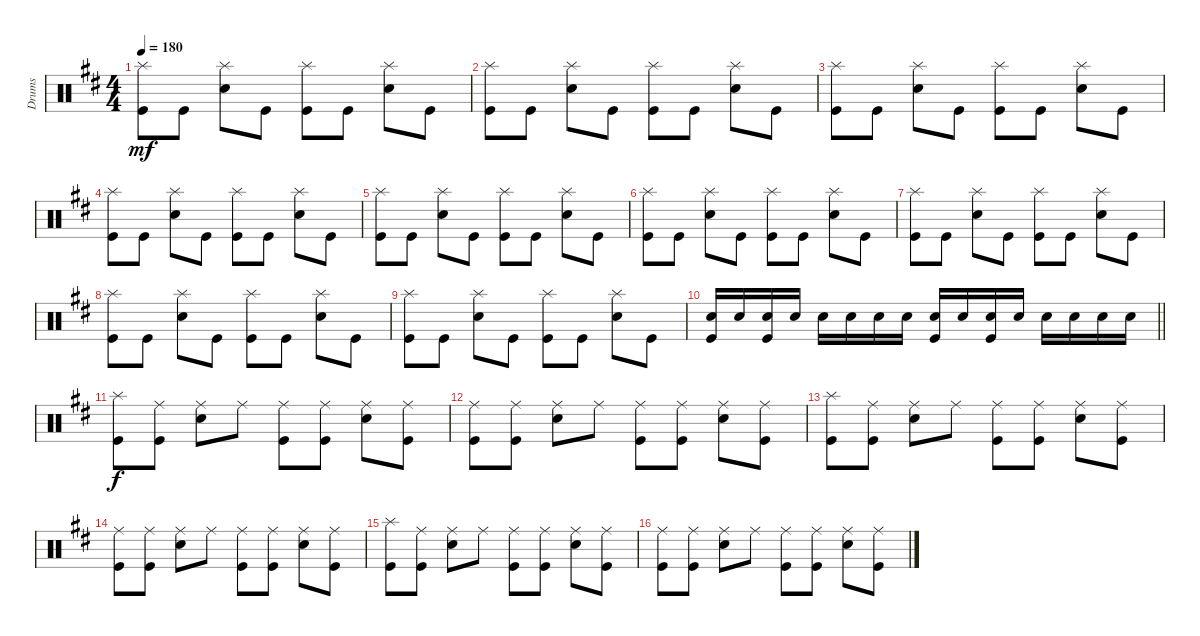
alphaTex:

\track ("Drums" "Drums") {instrument percussion}
\staff {score}
\articulation defaults
\ts (4 4)
\tempo 180
\clef neutral
\ks d
("Kick (hit)" "Splash (hit)").8{dy mf} "Kick (hit)".8 ("Snare (hit) 2" "Splash (hit)").8 "Kick (hit)".8 ("Kick (hit)" "Splash (hit)").8 "Kick (hit)".8 ("Snare (hit) 2" "Splash (hit)").8 "Kick (hit)".8 |
("Kick (hit)" "Splash (hit)").8 "Kick (hit)".8 ("Snare (hit) 2" "Splash (hit)").8 "Kick (hit)".8 ("Kick (hit)" "Splash (hit)").8 "Kick (hit)".8 ("Snare (hit) 2" "Splash (hit)").8 "Kick (hit)".8 |
("Kick (hit)" "Splash (hit)").8 "Kick (hit)".8 ("Snare (hit) 2" "Splash (hit)").8 "Kick (hit)".8 ("Kick (hit)" "Splash (hit)").8 "Kick (hit)".8 ("Snare (hit) 2" "Splash (hit)").8 "Kick (hit)".8 |
("Kick (hit)" "Splash (hit)").8 "Kick (hit)".8 ("Snare (hit) 2" "Splash (hit)").8 "Kick (hit)".8 ("Kick (hit)" "Splash (hit)").8 "Kick (hit)".8 ("Snare (hit) 2" "Splash (hit)").8 "Kick (hit)".8 |
("Kick (hit)" "Splash (hit)").8 "Kick (hit)".8 ("Snare (hit) 2" "Splash (hit)").8 "Kick (hit)".8 ("Kick (hit)" "Splash (hit)").8 "Kick (hit)".8 ("Snare (hit) 2" "Splash (hit)").8 "Kick (hit)".8 |
("Kick (hit)" "Splash (hit)").8 "Kick (hit)".8 ("Snare (hit) 2" "Splash (hit)").8 "Kick (hit)".8 ("Kick (hit)" "Splash (hit)").8 "Kick (hit)".8 ("Snare (hit) 2" "Splash (hit)").8 "Kick (hit)".8 |
("Kick (hit)" "Splash (hit)").8 "Kick (hit)".8 ("Snare (hit) 2" "Splash (hit)").8 "Kick (hit)".8 ("Kick (hit)" "Splash (hit)").8 "Kick (hit)".8 ("Snare (hit) 2" "Splash (hit)").8 "Kick (hit)".8 |
("Kick (hit)" "Splash (hit)").8 "Kick (hit)".8 ("Snare (hit) 2" "Splash (hit)").8 "Kick (hit)".8 ("Kick (hit)" "Splash (hit)").8 "Kick (hit)".8 ("Snare (hit) 2" "Splash (hit)").8 "Kick (hit)".8 |
("Kick (hit)" "Splash (hit)").8 "Kick (hit)".8 ("Snare (hit) 2" "Splash (hit)").8 "Kick (hit)".8 ("Kick (hit)" "Splash (hit)").8 "Kick (hit)".8 ("Snare (hit) 2" "Splash (hit)").8 "Kick (hit)".8 |
\barLineRight lightlight
("Snare (hit) 2" "Kick (hit)").16 "Snare (hit) 2".16 ("Snare (hit) 2" "Kick (hit)").16 "Snare (hit) 2".16 "Snare (hit) 2".16 "Snare (hit) 2".16 "Snare (hit) 2".16 "Snare (hit) 2".16 ("Snare (hit) 2" "Kick (hit)").16 "Snare (hit) 2".16 ("Snare (hit) 2" "Kick (hit)").16 "Snare (hit) 2".16 "Snare (hit) 2".16 "Snare (hit) 2".16 "Snare (hit) 2".16 "Snare (hit) 2".16 |
("Kick (hit)" "Splash (hit)").8{dy f} ("Kick (hit)" "Ride (middle)").8 ("Snare (hit) 2" "Ride (middle)").8 "Ride (middle)".8 ("Kick (hit)" "Ride (middle)").8 ("Kick (hit)" "Ride (middle)").8 ("Snare (hit) 2" "Ride (middle)").8 ("Kick (hit)" "Ride (middle)").8 |
("Kick (hit)" "Ride (middle)").8 ("Kick (hit)" "Ride (middle)").8 ("Snare (hit) 2" "Ride (middle)").8 "Ride (middle)".8 ("Kick (hit)" "Ride (middle)").8 ("Kick (hit)" "Ride (middle)").8 ("Snare (hit) 2" "Ride (middle)").8 ("Kick (hit)" "Ride (middle)").8 |
("Kick (hit)" "Splash (hit)").8 ("Kick (hit)" "Ride (middle)").8 ("Snare (hit) 2" "Ride (middle)").8 "Ride (middle)".8 ("Kick (hit)" "Ride (middle)").8 ("Kick (hit)" "Ride (middle)").8 ("Snare (hit) 2" "Ride (middle)").8 ("Kick (hit)" "Ride (middle)").8 |
("Kick (hit)" "Ride (middle)").8 ("Kick (hit)" "Ride (middle)").8 ("Snare (hit) 2" "Ride (middle)").8 "Ride (middle)".8 ("Kick (hit)" "Ride (middle)").8 ("Kick (hit)" "Ride (middle)").8 ("Snare (hit) 2" "Ride (middle)").8 ("Kick (hit)" "Ride (middle)").8 |
("Kick (hit)" "Splash (hit)").8 ("Kick (hit)" "Ride (middle)").8 ("Snare (hit) 2" "Ride (middle)").8 "Ride (middle)".8 ("Kick (hit)" "Ride (middle)").8 ("Kick (hit)" "Ride (middle)").8 ("Snare (hit) 2" "Ride (middle)").8 ("Kick (hit)" "Ride (middle)").8 |
("Kick (hit)" "Ride (middle)").8 ("Kick (hit)" "Ride (middle)").8 ("Snare (hit) 2" "Ride (middle)").8 "Ride (middle)".8 ("Kick (hit)" "Ride (middle)").8 ("Kick (hit)" "Ride (middle)").8 ("Snare (hit) 2" "Ride (middle)").8 ("Kick (hit)" "Ride (middle)").8
